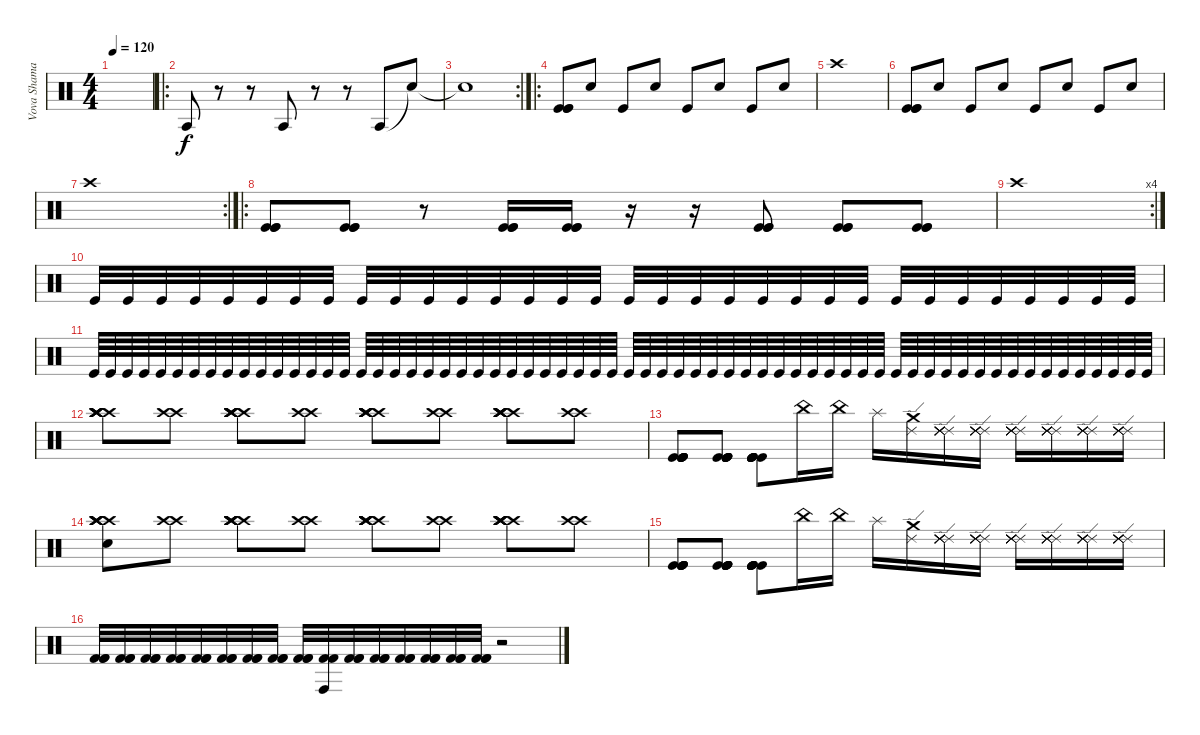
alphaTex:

\track ("Vova Shamay" "Vova Shama") {instrument percussion}
\staff {score}
\articulation defaults
\ts (4 4)
\tempo 120
\clef neutral
\ks c
|
\ro "Agogo tow (hit)".8
r.8 r.8 "Agogo tow (hit)".8 r.8 r.8 "Agogo tow (hit)".8 "Snare (hit)"{t}.8 |
\rc 2 "Snare (hit)"{t}.1
|
\ro
("Kick (hit)" "Kick (hit)" "Kick (hit)").8 "Electric Snare (hit)".8 "Kick (hit)".8 "Electric Snare (hit)".8 "Kick (hit)".8 "Electric Snare (hit)".8 "Kick (hit)".8 "Electric Snare (hit)".8 |
"Crash high (hit)".1 |
("Kick (hit)" "Kick (hit)" "Kick (hit)").8 "Electric Snare (hit)".8 "Kick (hit)".8 "Electric Snare (hit)".8 "Kick (hit)".8 "Electric Snare (hit)".8 "Kick (hit)".8 "Electric Snare (hit)".8 |
\rc 2 "Crash high (hit)".1
|
\ro
("Kick (hit)" "Kick (hit)" "Kick (hit)").8 ("Kick (hit)" "Kick (hit)" "Kick (hit)").8 r.8 ("Kick (hit)" "Kick (hit)" "Kick (hit)").16 ("Kick (hit)" "Kick (hit)" "Kick (hit)").16 r.16 r.16 ("Kick (hit)" "Kick (hit)" "Kick (hit)").8 ("Kick (hit)" "Kick (hit)" "Kick (hit)").8 ("Kick (hit)" "Kick (hit)" "Kick (hit)").8 |
\rc 4 "Crash high (hit)".1
|
"Kick (hit)".32 "Kick (hit)".32 "Kick (hit)".32 "Kick (hit)".32 "Kick (hit)".32 "Kick (hit)".32 "Kick (hit)".32 "Kick (hit)".32 "Kick (hit)".32 "Kick (hit)".32 "Kick (hit)".32 "Kick (hit)".32 "Kick (hit)".32 "Kick (hit)".32 "Kick (hit)".32 "Kick (hit)".32 "Kick (hit)".32 "Kick (hit)".32 "Kick (hit)".32 "Kick (hit)".32 "Kick (hit)".32 "Kick (hit)".32 "Kick (hit)".32 "Kick (hit)".32 "Kick (hit)".32 "Kick (hit)".32 "Kick (hit)".32 "Kick (hit)".32 "Kick (hit)".32 "Kick (hit)".32 "Kick (hit)".32 "Kick (hit)".32 |
"Kick (hit)".64 "Kick (hit)".64 "Kick (hit)".64 "Kick (hit)".64 "Kick (hit)".64 "Kick (hit)".64 "Kick (hit)".64 "Kick (hit)".64 "Kick (hit)".64 "Kick (hit)".64 "Kick (hit)".64 "Kick (hit)".64 "Kick (hit)".64 "Kick (hit)".64 "Kick (hit)".64 "Kick (hit)".64 "Kick (hit)".64 "Kick (hit)".64 "Kick (hit)".64 "Kick (hit)".64 "Kick (hit)".64 "Kick (hit)".64 "Kick (hit)".64 "Kick (hit)".64 "Kick (hit)".64 "Kick (hit)".64 "Kick (hit)".64 "Kick (hit)".64 "Kick (hit)".64 "Kick (hit)".64 "Kick (hit)".64 "Kick (hit)".64 "Kick (hit)".64 "Kick (hit)".64 "Kick (hit)".64 "Kick (hit)".64 "Kick (hit)".64 "Kick (hit)".64 "Kick (hit)".64 "Kick (hit)".64 "Kick (hit)".64 "Kick (hit)".64 "Kick (hit)".64 "Kick (hit)".64 "Kick (hit)".64 "Kick (hit)".64 "Kick (hit)".64 "Kick (hit)".64 "Kick (hit)".64 "Kick (hit)".64 "Kick (hit)".64 "Kick (hit)".64 "Kick (hit)".64 "Kick (hit)".64 "Kick (hit)".64 "Kick (hit)".64 "Kick (hit)".64 "Kick (hit)".64 "Kick (hit)".64 "Kick (hit)".64 "Kick (hit)".64 "Kick (hit)".64 "Kick (hit)".64 "Kick (hit)".64 |
("Crash high (hit)" "Crash high (hit)" "Crash high (hit)" "Crash high (hit)" "Crash high (hit)" "Crash high (hit)").8 ("Crash high (hit)" "Crash high (hit)").8 ("Crash high (hit)" "Crash high (hit)" "Crash high (hit)" "Crash high (hit)" "Crash high (hit)" "Crash high (hit)").8 ("Crash high (hit)" "Crash high (hit)").8 ("Crash high (hit)" "Crash high (hit)" "Crash high (hit)" "Crash high (hit)" "Crash high (hit)" "Crash high (hit)").8 ("Crash high (hit)" "Crash high (hit)").8 ("Crash high (hit)" "Crash high (hit)" "Crash high (hit)" "Crash high (hit)" "Crash high (hit)" "Crash high (hit)").8 ("Crash high (hit)" "Crash high (hit)").8 |
("Kick (hit)" "Kick (hit)" "Kick (hit)" "Kick (hit)" "Kick (hit)" "Kick (hit)").8 ("Kick (hit)" "Kick (hit)" "Kick (hit)" "Kick (hit)" "Kick (hit)" "Kick (hit)").8 ("Kick (hit)" "Kick (hit)" "Kick (hit)" "Kick (hit)" "Kick (hit)" "Kick (hit)").8 "China (hit)".16 "China (hit)".16 "Splash (hit)".16 ("Ride (edge) 2" "Crash medium (hit)").16 ("Ride (edge) 2" "Ride (edge) 2" "Ride (edge) 2" "Ride (edge) 2" "Ride (edge) 2" "Ride (edge) 2").16 ("Ride (edge) 2" "Ride (edge) 2" "Ride (edge) 2" "Ride (edge) 2" "Ride (edge) 2" "Ride (edge) 2").16 ("Ride (edge) 2" "Ride (edge) 2" "Ride (edge) 2" "Ride (edge) 2" "Ride (edge) 2" "Ride (edge) 2").16 ("Ride (edge) 2" "Ride (edge) 2" "Ride (edge) 2" "Ride (edge) 2" "Ride (edge) 2" "Ride (edge) 2").16 ("Ride (edge) 2" "Ride (edge) 2" "Ride (edge) 2" "Ride (edge) 2" "Ride (edge) 2" "Ride (edge) 2").16 ("Ride (edge) 2" "Ride (edge) 2" "Ride (edge) 2" "Ride (edge) 2" "Ride (edge) 2" "Ride (edge) 2").16 |
("Crash high (hit)" "Crash high (hit)" "Crash high (hit)" "Crash high (hit)" "Crash high (hit)" "Snare (hit)").8 ("Crash high (hit)" "Crash high (hit)").8 ("Crash high (hit)" "Crash high (hit)" "Crash high (hit)" "Crash high (hit)" "Crash high (hit)" "Crash high (hit)").8 ("Crash high (hit)" "Crash high (hit)").8 ("Crash high (hit)" "Crash high (hit)" "Crash high (hit)" "Crash high (hit)" "Crash high (hit)" "Crash high (hit)").8 ("Crash high (hit)" "Crash high (hit)").8 ("Crash high (hit)" "Crash high (hit)" "Crash high (hit)" "Crash high (hit)" "Crash high (hit)" "Crash high (hit)").8 ("Crash high (hit)" "Crash high (hit)").8 |
("Kick (hit)" "Kick (hit)" "Kick (hit)" "Kick (hit)" "Kick (hit)" "Kick (hit)").8 ("Kick (hit)" "Kick (hit)" "Kick (hit)" "Kick (hit)" "Kick (hit)" "Kick (hit)").8 ("Kick (hit)" "Kick (hit)" "Kick (hit)" "Kick (hit)" "Kick (hit)" "Kick (hit)").8 "China (hit)".16 "China (hit)".16 "Splash (hit)".16 ("Ride (edge) 2" "Crash medium (hit)").16 ("Ride (edge) 2" "Ride (edge) 2" "Ride (edge) 2" "Ride (edge) 2" "Ride (edge) 2" "Ride (edge) 2").16 ("Ride (edge) 2" "Ride (edge) 2" "Ride (edge) 2" "Ride (edge) 2" "Ride (edge) 2" "Ride (edge) 2").16 ("Ride (edge) 2" "Ride (edge) 2" "Ride (edge) 2" "Ride (edge) 2" "Ride (edge) 2" "Ride (edge) 2").16 ("Ride (edge) 2" "Ride (edge) 2" "Ride (edge) 2" "Ride (edge) 2" "Ride (edge) 2" "Ride (edge) 2").16 ("Ride (edge) 2" "Ride (edge) 2" "Ride (edge) 2" "Ride (edge) 2" "Ride (edge) 2" "Ride (edge) 2").16 ("Ride (edge) 2" "Ride (edge) 2" "Ride (edge) 2" "Ride (edge) 2" "Ride (edge) 2" "Ride (edge) 2").16 |
("Kick (hit) 2" "Kick (hit) 2" "Kick (hit) 2").32 ("Kick (hit) 2" "Kick (hit) 2" "Kick (hit) 2").32 ("Kick (hit) 2" "Kick (hit) 2" "Kick (hit) 2").32 ("Kick (hit) 2" "Kick (hit) 2" "Kick (hit) 2").32 ("Kick (hit) 2" "Kick (hit) 2" "Kick (hit) 2").32 ("Kick (hit) 2" "Kick (hit) 2" "Kick (hit) 2").32 ("Kick (hit) 2" "Kick (hit) 2" "Kick (hit) 2").32 ("Kick (hit) 2" "Kick (hit) 2" "Kick (hit) 2").32 ("Kick (hit) 2" "Kick (hit) 2" "Kick (hit) 2").32 ("Conga high (hit)" "Kick (hit) 2" "Kick (hit) 2").32 ("Kick (hit) 2" "Kick (hit) 2" "Kick (hit) 2").32 ("Kick (hit) 2" "Kick (hit) 2" "Kick (hit) 2").32 ("Kick (hit) 2" "Kick (hit) 2" "Kick (hit) 2").32 ("Kick (hit) 2" "Kick (hit) 2" "Kick (hit) 2").32 ("Kick (hit) 2" "Kick (hit) 2" "Kick (hit) 2").32 ("Kick (hit) 2" "Kick (hit) 2" "Kick (hit) 2").32 r.2
